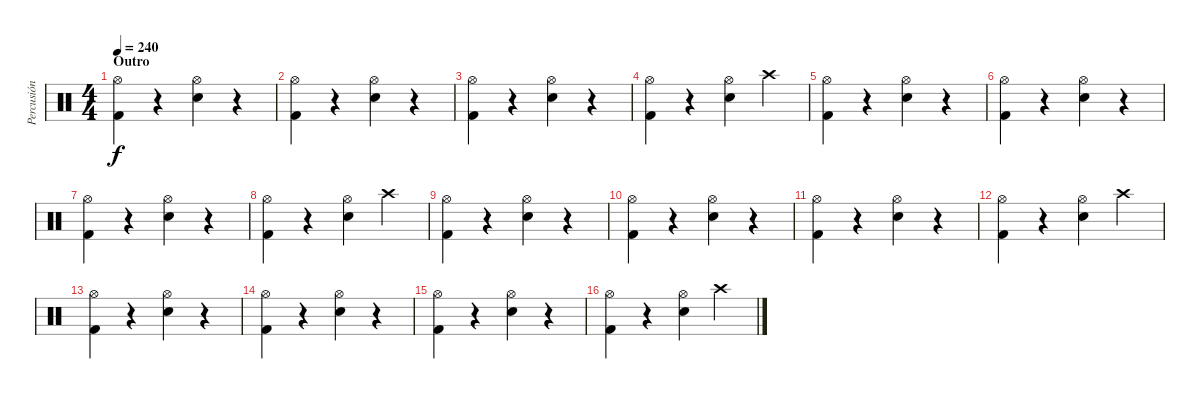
\track ("Percusión" "Percusión") {instrument percussion}
\staff {score}
\articulation defaults
\ts (4 4)
\section ("" "Outro")
\tempo 240
\clef neutral
\ks c
("Hi-Hat (open)" "Kick (hit) 2").4{dy f} r.4 ("Hi-Hat (open)" "Electric Snare (hit)").4 r.4 |
("Hi-Hat (open)" "Kick (hit) 2").4 r.4 ("Hi-Hat (open)" "Electric Snare (hit)").4 r.4 |
("Hi-Hat (open)" "Kick (hit) 2").4 r.4 ("Hi-Hat (open)" "Electric Snare (hit)").4 r.4 |
("Hi-Hat (open)" "Kick (hit) 2").4 r.4 ("Hi-Hat (open)" "Electric Snare (hit)").4 "Crash high (hit)".4 |
("Hi-Hat (open)" "Kick (hit) 2").4 r.4 ("Hi-Hat (open)" "Electric Snare (hit)").4 r.4 |
("Hi-Hat (open)" "Kick (hit) 2").4 r.4 ("Hi-Hat (open)" "Electric Snare (hit)").4 r.4 |
("Hi-Hat (open)" "Kick (hit) 2").4 r.4 ("Hi-Hat (open)" "Electric Snare (hit)").4 r.4 |
("Hi-Hat (open)" "Kick (hit) 2").4 r.4 ("Hi-Hat (open)" "Electric Snare (hit)").4 "Crash high (hit)".4 |
("Hi-Hat (open)" "Kick (hit) 2").4 r.4 ("Hi-Hat (open)" "Electric Snare (hit)").4 r.4 |
("Hi-Hat (open)" "Kick (hit) 2").4 r.4 ("Hi-Hat (open)" "Electric Snare (hit)").4 r.4 |
("Hi-Hat (open)" "Kick (hit) 2").4 r.4 ("Hi-Hat (open)" "Electric Snare (hit)").4 r.4 |
("Hi-Hat (open)" "Kick (hit) 2").4 r.4 ("Hi-Hat (open)" "Electric Snare (hit)").4 "Crash high (hit)".4 |
("Hi-Hat (open)" "Kick (hit) 2").4 r.4 ("Hi-Hat (open)" "Electric Snare (hit)").4 r.4 |
("Hi-Hat (open)" "Kick (hit) 2").4 r.4 ("Hi-Hat (open)" "Electric Snare (hit)").4 r.4 |
("Hi-Hat (open)" "Kick (hit) 2").4 r.4 ("Hi-Hat (open)" "Electric Snare (hit)").4 r.4 |
("Hi-Hat (open)" "Kick (hit) 2").4 r.4 ("Hi-Hat (open)" "Electric Snare (hit)").4 "Crash high (hit)".4
